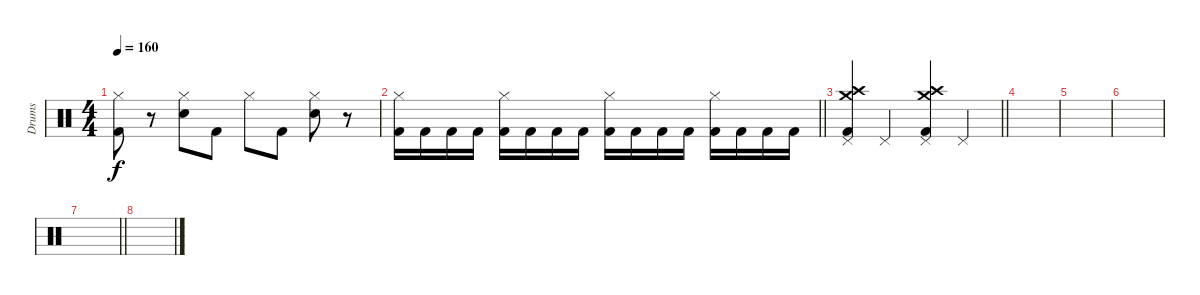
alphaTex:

\track ("Drums" "Drums") {instrument percussion}
\staff {score}
\articulation defaults
\ts (4 4)
\tempo 160
\clef neutral
\ks c
("Hi-Hat (closed)" "Kick (hit) 2").8{dy f} r.8 ("Hi-Hat (closed)" "Electric Snare (hit)").8 "Kick (hit) 2".8 "Hi-Hat (closed)".8 "Kick (hit) 2".8 ("Hi-Hat (closed)" "Electric Snare (hit)").8 r.8 |
\barLineRight lightlight
("Hi-Hat (closed)" "Kick (hit) 2").16 "Kick (hit) 2".16 "Kick (hit) 2".16 "Kick (hit) 2".16 ("Hi-Hat (closed)" "Kick (hit) 2").16 "Kick (hit) 2".16 "Kick (hit) 2".16 "Kick (hit) 2".16 ("Hi-Hat (closed)" "Kick (hit) 2").16 "Kick (hit) 2".16 "Kick (hit) 2".16 "Kick (hit) 2".16 ("Hi-Hat (closed)" "Kick (hit) 2").16 "Kick (hit) 2".16 "Kick (hit) 2".16 "Kick (hit) 2".16 |
\section ("" "")
\barLineRight lightlight
("Crash medium (hit)" "Crash high (hit)" "Pedal Hi-Hat (hit)" "Kick (hit) 2").4 "Pedal Hi-Hat (hit)".4 ("Crash medium (hit)" "Crash high (hit)" "Pedal Hi-Hat (hit)" "Kick (hit) 2").4 "Pedal Hi-Hat (hit)".4 |
\section ("" "")
|
|
|
\barLineRight lightlight
|
\section ("" "")
